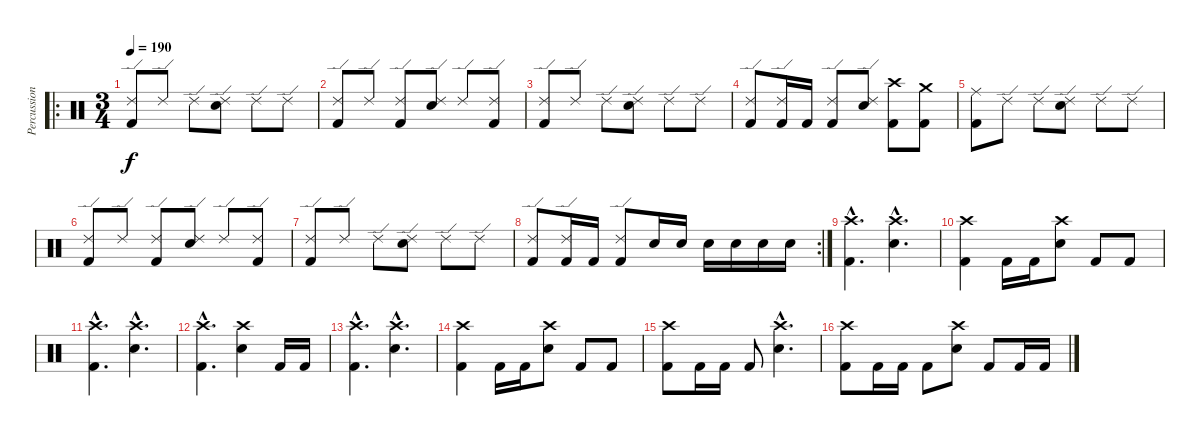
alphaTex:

\track ("Percussion" "Percussion") {instrument percussion}
\staff {score}
\articulation defaults
\ro
\ts (3 4)
\tempo 190
\clef neutral
\ks c
("Ride (edge) 2" "Kick (hit) 2").8{dy f} "Ride (edge) 2".8 "Ride (edge) 2".8 ("Ride (edge) 2" "Electric Snare (hit)").8 "Ride (edge) 2".8 "Ride (edge) 2".8 |
("Ride (edge) 2" "Kick (hit) 2").8 "Ride (edge) 2".8 ("Ride (edge) 2" "Kick (hit) 2").8 ("Ride (edge) 2" "Electric Snare (hit)").8 "Ride (edge) 2".8 ("Ride (edge) 2" "Kick (hit) 2").8 |
("Ride (edge) 2" "Kick (hit) 2").8 "Ride (edge) 2".8 "Ride (edge) 2".8 ("Ride (edge) 2" "Electric Snare (hit)").8 "Ride (edge) 2".8 "Ride (edge) 2".8 |
("Ride (edge) 2" "Kick (hit) 2").8 ("Ride (edge) 2" "Kick (hit) 2").16 "Kick (hit) 2".16 ("Ride (edge) 2" "Kick (hit) 2").8 ("Ride (edge) 2" "Electric Snare (hit)").8 ("Crash high (hit)" "Kick (hit) 2").8 ("Crash medium (hit)" "Kick (hit) 2").8 |
("Ride (middle)" "Kick (hit) 2").8 "Ride (edge) 2".8 "Ride (edge) 2".8 ("Ride (edge) 2" "Electric Snare (hit)").8 "Ride (edge) 2".8 "Ride (edge) 2".8 |
("Ride (edge) 2" "Kick (hit) 2").8 "Ride (edge) 2".8 ("Ride (edge) 2" "Kick (hit) 2").8 ("Ride (edge) 2" "Electric Snare (hit)").8 "Ride (edge) 2".8 ("Ride (edge) 2" "Kick (hit) 2").8 |
("Ride (edge) 2" "Kick (hit) 2").8 "Ride (edge) 2".8 "Ride (edge) 2".8 ("Ride (edge) 2" "Electric Snare (hit)").8 "Ride (edge) 2".8 "Ride (edge) 2".8 |
\rc 2
("Ride (edge) 2" "Kick (hit) 2").8 ("Ride (edge) 2" "Kick (hit) 2").16 "Kick (hit) 2".16 ("Ride (edge) 2" "Kick (hit) 2").8 "Electric Snare (hit)".16 "Electric Snare (hit)".16 "Electric Snare (hit)".16 "Electric Snare (hit)".16 "Electric Snare (hit)".16 "Electric Snare (hit)".16 |
("Crash high (hit)"{hac} "Kick (hit) 2"{hac}).4{d} ("Crash high (hit)"{hac} "Electric Snare (hit)"{hac}).4{d} |
("Crash high (hit)" "Kick (hit) 2").4 "Kick (hit) 2".16 "Kick (hit) 2".16 ("Crash high (hit)" "Electric Snare (hit)").8 "Kick (hit) 2".8 "Kick (hit) 2".8 |
("Crash high (hit)"{hac} "Kick (hit) 2"{hac}).4{d} ("Crash high (hit)"{hac} "Electric Snare (hit)"{hac}).4{d} |
("Crash high (hit)"{hac} "Kick (hit) 2"{hac}).4{d} ("Crash high (hit)" "Electric Snare (hit)").4 "Kick (hit) 2".16 "Kick (hit) 2".16 |
("Crash high (hit)"{hac} "Kick (hit) 2"{hac}).4{d} ("Crash high (hit)"{hac} "Electric Snare (hit)"{hac}).4{d} |
("Crash high (hit)" "Kick (hit) 2").4 "Kick (hit) 2".16 "Kick (hit) 2".16 ("Crash high (hit)" "Electric Snare (hit)").8 "Kick (hit) 2".8 "Kick (hit) 2".8 |
("Crash high (hit)" "Kick (hit) 2").8 "Kick (hit) 2".16 "Kick (hit) 2".16 "Kick (hit) 2".8 ("Crash high (hit)"{hac} "Electric Snare (hit)"{hac}).4{d} |
("Crash high (hit)" "Kick (hit) 2").8 "Kick (hit) 2".16 "Kick (hit) 2".16 "Kick (hit) 2".8 ("Crash high (hit)" "Electric Snare (hit)").8 "Kick (hit) 2".8 "Kick (hit) 2".16 "Kick (hit) 2".16
